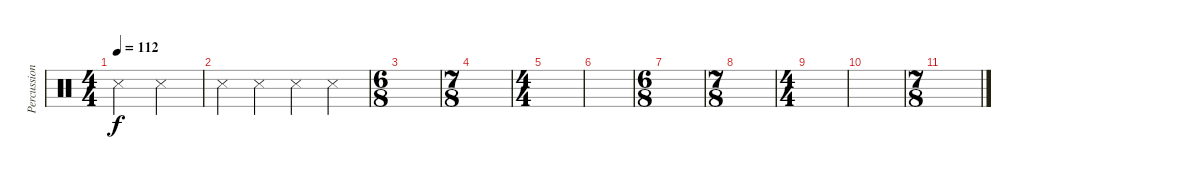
\track ("Percussions" "Percussion") {instrument percussion}
\staff {score}
\articulation defaults
\ts (4 4)
\tempo 112
\clef neutral
\ks c "Metronome (hit)".2{dy f} "Metronome (hit)".2
|
"Metronome (hit)".4 "Metronome (hit)".4 "Metronome (hit)".4 "Metronome (hit)".4 |
\ts (6 8)
|
\ts (7 8)
|
\ts (4 4)
|
|
\ts (6 8)
|
\ts (7 8)
|
\ts (4 4)
|
|
\ts (7 8)
